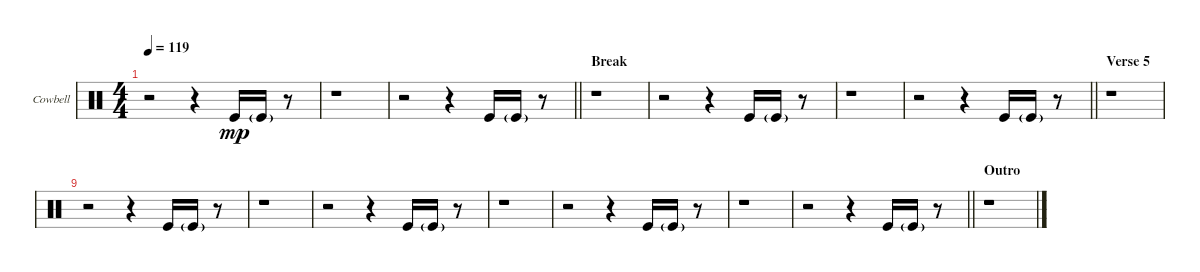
\defaultSystemsLayout 4
\bracketExtendMode groupsimilarinstruments
\useSystemSignSeparator
\multiBarRest
\multiTrackTrackNamePolicy allsystems
\firstSystemTrackNameMode fullname
\firstSystemTrackNameOrientation horizontal
\otherSystemsTrackNameOrientation horizontal
\defaultBarNumberDisplay FirstOfSystem
\track ("Cowbell" "Cowbell") {multiBarRest instrument percussion}
\staff {score}
\articulation defaults
\ts (4 4)
\tempo 119
\clef neutral
\ks aminor
r.2{dy mp} r.4 "Kick (hit)".16 "Kick (hit)"{g}.16 r.8 |
r.1 |
\barLineRight lightlight
r.2 r.4 "Kick (hit)".16 "Kick (hit)"{g}.16 r.8 |
\section ("" "Break")
r.1 |
r.2 r.4 "Kick (hit)".16 "Kick (hit)"{g}.16 r.8 |
r.1 |
\barLineRight lightlight
r.2 r.4 "Kick (hit)".16 "Kick (hit)"{g}.16 r.8 |
\section ("" "Verse 5")
r.1 |
r.2 r.4 "Kick (hit)".16 "Kick (hit)"{g}.16 r.8 |
r.1 |
r.2 r.4 "Kick (hit)".16 "Kick (hit)"{g}.16 r.8 |
r.1 |
r.2 r.4 "Kick (hit)".16 "Kick (hit)"{g}.16 r.8 |
r.1 |
\barLineRight lightlight
r.2 r.4 "Kick (hit)".16 "Kick (hit)"{g}.16 r.8 |
\section ("" "Outro")
r.1
